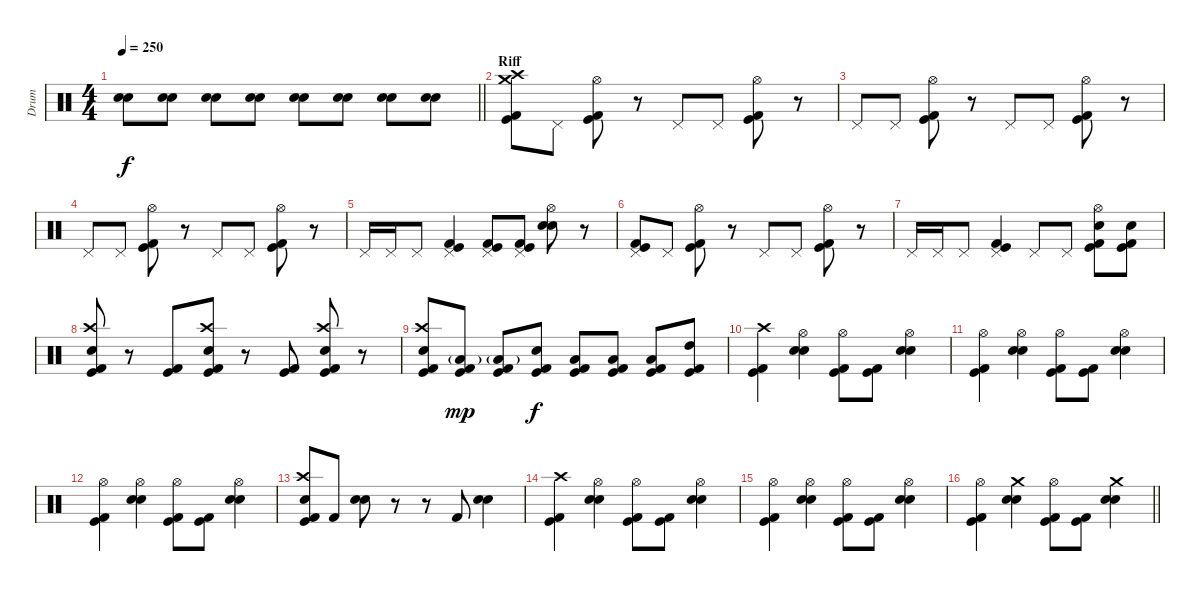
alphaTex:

\track ("Drum" "Drum") {instrument percussion}
\staff {score}
\articulation defaults
\ts (4 4)
\tempo 250
\clef neutral
\barLineRight lightlight
\ks c
("Electric Snare (hit)" "Snare (hit) 2").8{dy f} ("Electric Snare (hit)" "Snare (hit) 2").8 ("Electric Snare (hit)" "Snare (hit) 2").8 ("Electric Snare (hit)" "Snare (hit) 2").8 ("Electric Snare (hit)" "Snare (hit) 2").8 ("Electric Snare (hit)" "Snare (hit) 2").8 ("Electric Snare (hit)" "Snare (hit) 2").8 ("Electric Snare (hit)" "Snare (hit) 2").8 |
\section ("" "Riff")
("Crash high (hit)" "Crash medium (hit)" "Kick (hit) 2" "Kick (hit)").8 "Pedal Hi-Hat (hit)".8 ("Hi-Hat (open)" "Kick (hit) 2" "Kick (hit)").8 r.8 "Pedal Hi-Hat (hit)".8 "Pedal Hi-Hat (hit)".8 ("Hi-Hat (open)" "Kick (hit) 2" "Kick (hit)").8 r.8 |
"Pedal Hi-Hat (hit)".8 "Pedal Hi-Hat (hit)".8 ("Hi-Hat (open)" "Kick (hit) 2" "Kick (hit)").8 r.8 "Pedal Hi-Hat (hit)".8 "Pedal Hi-Hat (hit)".8 ("Hi-Hat (open)" "Kick (hit) 2" "Kick (hit)").8 r.8 |
"Pedal Hi-Hat (hit)".8 "Pedal Hi-Hat (hit)".8 ("Hi-Hat (open)" "Kick (hit) 2" "Kick (hit)").8 r.8 "Pedal Hi-Hat (hit)".8 "Pedal Hi-Hat (hit)".8 ("Hi-Hat (open)" "Kick (hit) 2" "Kick (hit)").8 r.8 |
"Pedal Hi-Hat (hit)".16 "Pedal Hi-Hat (hit)".16 "Pedal Hi-Hat (hit)".8 ("Pedal Hi-Hat (hit)" "Kick (hit) 2" "Kick (hit)").4 ("Pedal Hi-Hat (hit)" "Kick (hit) 2" "Kick (hit)").8 ("Pedal Hi-Hat (hit)" "Kick (hit) 2" "Kick (hit)").8 ("Hi-Hat (open)" "Electric Snare (hit)" "Snare (hit) 2").8 r.8 |
("Pedal Hi-Hat (hit)" "Kick (hit) 2" "Kick (hit)").8 "Pedal Hi-Hat (hit)".8 ("Hi-Hat (open)" "Kick (hit) 2" "Kick (hit)").8 r.8 "Pedal Hi-Hat (hit)".8 "Pedal Hi-Hat (hit)".8 ("Hi-Hat (open)" "Kick (hit) 2" "Kick (hit)").8 r.8 |
"Pedal Hi-Hat (hit)".16 "Pedal Hi-Hat (hit)".16 "Pedal Hi-Hat (hit)".8 ("Pedal Hi-Hat (hit)" "Kick (hit) 2" "Kick (hit)").4 "Pedal Hi-Hat (hit)".8 "Pedal Hi-Hat (hit)".8 ("Hi-Hat (open)" "Electric Snare (hit)" "Kick (hit) 2" "Kick (hit)").8 ("Electric Snare (hit)" "Kick (hit) 2" "Kick (hit)").8 |
("Crash high (hit)" "Electric Snare (hit)" "Kick (hit) 2" "Kick (hit)").8 r.8 ("Kick (hit) 2" "Kick (hit)").8 ("Crash high (hit)" "Electric Snare (hit)" "Kick (hit) 2" "Kick (hit)").8 r.8 ("Kick (hit) 2" "Kick (hit)").8 ("Crash high (hit)" "Electric Snare (hit)" "Kick (hit) 2" "Kick (hit)").8 r.8 |
("Crash high (hit)" "Electric Snare (hit)" "Kick (hit) 2" "Kick (hit)").8 ("Low Floor Tom (hit)"{g} "Kick (hit) 2" "Kick (hit)").8{dy mp} ("Low Floor Tom (hit)"{g} "Kick (hit) 2" "Kick (hit)").8 ("Electric Snare (hit)" "Kick (hit) 2" "Kick (hit)").8{dy f} ("Low Tom (hit)" "Kick (hit) 2" "Kick (hit)").8 ("Low Floor Tom (hit)" "Kick (hit) 2" "Kick (hit)").8 ("Low Floor Tom (hit)" "Kick (hit) 2" "Kick (hit)").8 ("High Tom (hit)" "Kick (hit) 2" "Kick (hit)").8 |
("Crash high (hit)" "Kick (hit) 2" "Kick (hit)").4 ("Hi-Hat (open)" "Electric Snare (hit)" "Snare (hit) 2").4 ("Hi-Hat (open)" "Kick (hit) 2" "Kick (hit)").8 ("Kick (hit) 2" "Kick (hit)").8 ("Hi-Hat (open)" "Electric Snare (hit)" "Snare (hit) 2").4 |
("Hi-Hat (open)" "Kick (hit) 2" "Kick (hit)").4 ("Hi-Hat (open)" "Electric Snare (hit)" "Snare (hit) 2").4 ("Hi-Hat (open)" "Kick (hit) 2" "Kick (hit)").8 ("Kick (hit) 2" "Kick (hit)").8 ("Hi-Hat (open)" "Electric Snare (hit)" "Snare (hit) 2").4 |
("Hi-Hat (open)" "Kick (hit) 2" "Kick (hit)").4 ("Hi-Hat (open)" "Electric Snare (hit)" "Snare (hit) 2").4 ("Hi-Hat (open)" "Kick (hit) 2" "Kick (hit)").8 ("Kick (hit) 2" "Kick (hit)").8 ("Hi-Hat (open)" "Electric Snare (hit)" "Snare (hit) 2").4 |
("Crash high (hit)" "Electric Snare (hit)" "Kick (hit) 2" "Kick (hit)").8 "Kick (hit) 2".8 ("Electric Snare (hit)" "Snare (hit) 2").8 r.8 r.8 "Kick (hit) 2".8 ("Electric Snare (hit)" "Snare (hit) 2").4 |
("Crash high (hit)" "Kick (hit) 2" "Kick (hit)").4 ("Hi-Hat (open)" "Electric Snare (hit)" "Snare (hit) 2").4 ("Hi-Hat (open)" "Kick (hit) 2" "Kick (hit)").8 ("Kick (hit) 2" "Kick (hit)").8 ("Hi-Hat (open)" "Electric Snare (hit)" "Snare (hit) 2").4 |
("Hi-Hat (open)" "Kick (hit) 2" "Kick (hit)").4 ("Hi-Hat (open)" "Electric Snare (hit)" "Snare (hit) 2").4 ("Hi-Hat (open)" "Kick (hit) 2" "Kick (hit)").8 ("Kick (hit) 2" "Kick (hit)").8 ("Hi-Hat (open)" "Electric Snare (hit)" "Snare (hit) 2").4 |
\barLineRight lightlight
("Hi-Hat (open)" "Kick (hit) 2" "Kick (hit)").4 ("Crash medium (hit)" "Electric Snare (hit)" "Snare (hit) 2").4 ("Hi-Hat (open)" "Kick (hit) 2" "Kick (hit)").8 ("Kick (hit) 2" "Kick (hit)").8 ("Crash medium (hit)" "Electric Snare (hit)" "Snare (hit) 2").4
